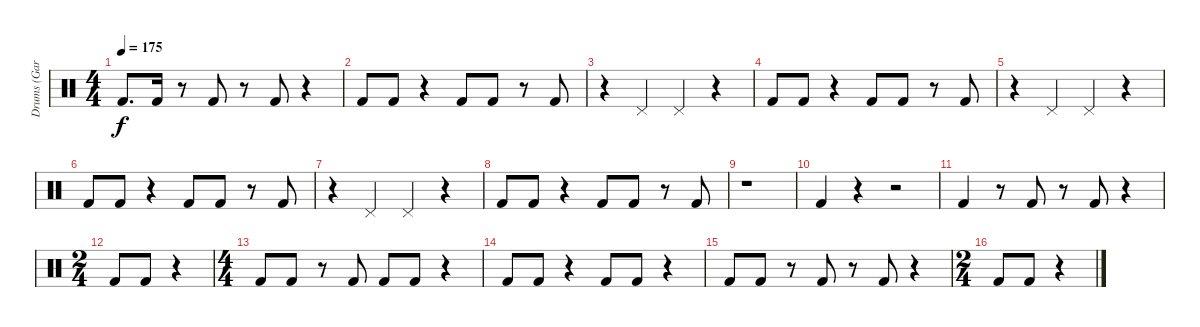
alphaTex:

\track ("Drums (Gar Samuelson)" "Drums (Gar") {instrument percussion}
\staff {score}
\articulation defaults
\ts (4 4)
\tempo 175
\clef neutral
\ks c "Kick (hit) 2".8{d dy f} "Kick (hit) 2".16
r.8 "Kick (hit) 2".8 r.8 "Kick (hit) 2".8 r.4 |
"Kick (hit) 2".8 "Kick (hit) 2".8 r.4 "Kick (hit) 2".8 "Kick (hit) 2".8 r.8 "Kick (hit) 2".8 |
r.4 "Pedal Hi-Hat (hit)".4 "Pedal Hi-Hat (hit)".4 r.4 |
"Kick (hit) 2".8 "Kick (hit) 2".8 r.4 "Kick (hit) 2".8 "Kick (hit) 2".8 r.8 "Kick (hit) 2".8 |
r.4 "Pedal Hi-Hat (hit)".4 "Pedal Hi-Hat (hit)".4 r.4 |
"Kick (hit) 2".8 "Kick (hit) 2".8 r.4 "Kick (hit) 2".8 "Kick (hit) 2".8 r.8 "Kick (hit) 2".8 |
r.4 "Pedal Hi-Hat (hit)".4 "Pedal Hi-Hat (hit)".4 r.4 |
"Kick (hit) 2".8 "Kick (hit) 2".8 r.4 "Kick (hit) 2".8 "Kick (hit) 2".8 r.8 "Kick (hit) 2".8 |
r.1 |
"Kick (hit) 2".4 r.4 r.2 |
"Kick (hit) 2".4 r.8 "Kick (hit) 2".8 r.8 "Kick (hit) 2".8 r.4 |
\ts (2 4)
"Kick (hit) 2".8 "Kick (hit) 2".8 r.4 |
\ts (4 4)
"Kick (hit) 2".8 "Kick (hit) 2".8 r.8 "Kick (hit) 2".8 "Kick (hit) 2".8 "Kick (hit) 2".8 r.4 |
"Kick (hit) 2".8 "Kick (hit) 2".8 r.4 "Kick (hit) 2".8 "Kick (hit) 2".8 r.4 |
"Kick (hit) 2".8 "Kick (hit) 2".8 r.8 "Kick (hit) 2".8 r.8 "Kick (hit) 2".8 r.4 |
\ts (2 4)
"Kick (hit) 2".8 "Kick (hit) 2".8 r.4
